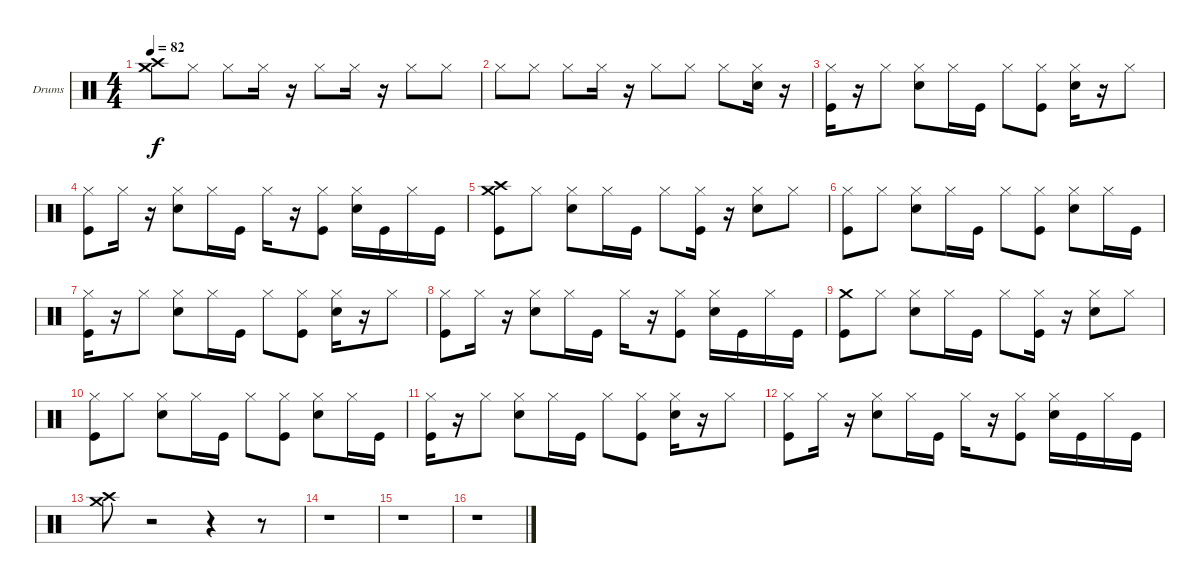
\bracketExtendMode groupsimilarinstruments
\firstSystemTrackNameOrientation horizontal
\otherSystemsTrackNameOrientation horizontal
\track ("Drumkit" "Drums") {instrument percussion}
\staff {score}
\articulation defaults
\ts (4 4)
\tempo 82
\clef neutral
\ks c
("Crash high (hit)" "Crash medium (hit)").8{dy f} "Hi-Hat (closed)".8 "Hi-Hat (closed)".8 "Hi-Hat (closed)".16 r.16 "Hi-Hat (closed)".8 "Hi-Hat (closed)".16 r.16 "Hi-Hat (closed)".8 "Hi-Hat (closed)".8 |
"Hi-Hat (closed)".8 "Hi-Hat (closed)".8 "Hi-Hat (closed)".8 "Hi-Hat (closed)".16 r.16 "Hi-Hat (closed)".8 "Hi-Hat (closed)".8 "Hi-Hat (closed)".8 ("Snare (hit) 2" "Hi-Hat (closed)").16 r.16 |
("Kick (hit)" "Hi-Hat (closed)").16 r.16 "Hi-Hat (closed)".8 ("Hi-Hat (closed)" "Snare (hit) 2").8 "Hi-Hat (closed)".16 "Kick (hit)".16 "Hi-Hat (closed)".8 ("Kick (hit)" "Hi-Hat (closed)").8 ("Snare (hit) 2" "Hi-Hat (closed)").16 r.16 "Hi-Hat (closed)".8 |
("Kick (hit)" "Hi-Hat (closed)").8 "Hi-Hat (closed)".16 r.16 ("Hi-Hat (closed)" "Snare (hit) 2").8 "Hi-Hat (closed)".16 "Kick (hit)".16 "Hi-Hat (closed)".16 r.16 ("Kick (hit)" "Hi-Hat (closed)").8 ("Snare (hit) 2" "Hi-Hat (closed)").16 "Kick (hit)".16 "Hi-Hat (closed)".16 "Kick (hit)".16 |
("Crash high (hit)" "Kick (hit)" "Crash medium (hit)").8 "Hi-Hat (closed)".8 ("Hi-Hat (closed)" "Snare (hit) 2").8 "Hi-Hat (closed)".16 "Kick (hit)".16 "Hi-Hat (closed)".8 ("Kick (hit)" "Hi-Hat (closed)").16 r.16 ("Snare (hit) 2" "Hi-Hat (closed)").8 "Hi-Hat (closed)".8 |
("Kick (hit)" "Hi-Hat (closed)").8 "Hi-Hat (closed)".8 ("Hi-Hat (closed)" "Snare (hit) 2").8 "Hi-Hat (closed)".16 "Kick (hit)".16 "Hi-Hat (closed)".8 ("Kick (hit)" "Hi-Hat (closed)").8 ("Snare (hit) 2" "Hi-Hat (closed)").8 "Hi-Hat (closed)".16 "Kick (hit)".16 |
("Kick (hit)" "Hi-Hat (closed)").16 r.16 "Hi-Hat (closed)".8 ("Hi-Hat (closed)" "Snare (hit) 2").8 "Hi-Hat (closed)".16 "Kick (hit)".16 "Hi-Hat (closed)".8 ("Kick (hit)" "Hi-Hat (closed)").8 ("Snare (hit) 2" "Hi-Hat (closed)").16 r.16 "Hi-Hat (closed)".8 |
("Kick (hit)" "Hi-Hat (closed)").8 "Hi-Hat (closed)".16 r.16 ("Hi-Hat (closed)" "Snare (hit) 2").8 "Hi-Hat (closed)".16 "Kick (hit)".16 "Hi-Hat (closed)".16 r.16 ("Kick (hit)" "Hi-Hat (closed)").8 ("Snare (hit) 2" "Hi-Hat (closed)").16 "Kick (hit)".16 "Hi-Hat (closed)".16 "Kick (hit)".16 |
("Kick (hit)" "Crash medium (hit)").8 "Hi-Hat (closed)".8 ("Hi-Hat (closed)" "Snare (hit) 2").8 "Hi-Hat (closed)".16 "Kick (hit)".16 "Hi-Hat (closed)".8 ("Kick (hit)" "Hi-Hat (closed)").16 r.16 ("Snare (hit) 2" "Hi-Hat (closed)").8 "Hi-Hat (closed)".8 |
("Kick (hit)" "Hi-Hat (closed)").8 "Hi-Hat (closed)".8 ("Hi-Hat (closed)" "Snare (hit) 2").8 "Hi-Hat (closed)".16 "Kick (hit)".16 "Hi-Hat (closed)".8 ("Kick (hit)" "Hi-Hat (closed)").8 ("Snare (hit) 2" "Hi-Hat (closed)").8 "Hi-Hat (closed)".16 "Kick (hit)".16 |
("Kick (hit)" "Hi-Hat (closed)").16 r.16 "Hi-Hat (closed)".8 ("Hi-Hat (closed)" "Snare (hit) 2").8 "Hi-Hat (closed)".16 "Kick (hit)".16 "Hi-Hat (closed)".8 ("Kick (hit)" "Hi-Hat (closed)").8 ("Snare (hit) 2" "Hi-Hat (closed)").16 r.16 "Hi-Hat (closed)".8 |
("Kick (hit)" "Hi-Hat (closed)").8 "Hi-Hat (closed)".16 r.16 ("Hi-Hat (closed)" "Snare (hit) 2").8 "Hi-Hat (closed)".16 "Kick (hit)".16 "Hi-Hat (closed)".16 r.16 ("Kick (hit)" "Hi-Hat (closed)").8 ("Snare (hit) 2" "Hi-Hat (closed)").16 "Kick (hit)".16 "Hi-Hat (closed)".16 "Kick (hit)".16 |
("Crash medium (hit)" "Crash high (hit)").8 r.2 r.4 r.8 |
r.1 |
r.1 |
r.1
